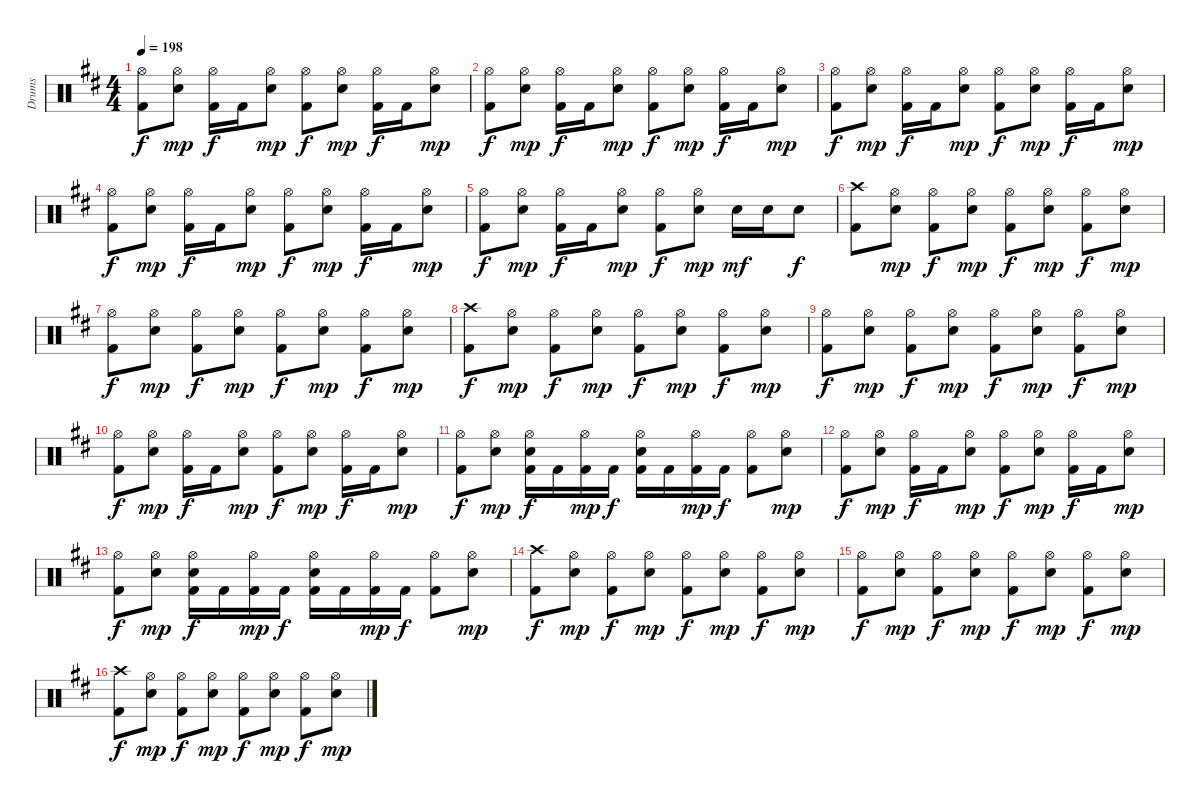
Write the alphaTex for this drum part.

\track ("Drums" "Drums") {instrument percussion}
\staff {score}
\articulation defaults
\ts (4 4)
\tempo 198
\clef neutral
\ks d
("Hi-Hat (open)" "Kick (hit) 2").8{dy f} ("Hi-Hat (open)" "Snare (hit) 2").8{dy mp} ("Hi-Hat (open)" "Kick (hit) 2").16{dy f} "Kick (hit) 2".16 ("Hi-Hat (open)" "Snare (hit) 2").8{dy mp} ("Hi-Hat (open)" "Kick (hit) 2").8{dy f} ("Hi-Hat (open)" "Snare (hit) 2").8{dy mp} ("Hi-Hat (open)" "Kick (hit) 2").16{dy f} "Kick (hit) 2".16 ("Hi-Hat (open)" "Snare (hit) 2").8{dy mp} |
("Hi-Hat (open)" "Kick (hit) 2").8{dy f} ("Hi-Hat (open)" "Snare (hit) 2").8{dy mp} ("Hi-Hat (open)" "Kick (hit) 2").16{dy f} "Kick (hit) 2".16 ("Hi-Hat (open)" "Snare (hit) 2").8{dy mp} ("Hi-Hat (open)" "Kick (hit) 2").8{dy f} ("Hi-Hat (open)" "Snare (hit) 2").8{dy mp} ("Hi-Hat (open)" "Kick (hit) 2").16{dy f} "Kick (hit) 2".16 ("Hi-Hat (open)" "Snare (hit) 2").8{dy mp} |
("Hi-Hat (open)" "Kick (hit) 2").8{dy f} ("Hi-Hat (open)" "Snare (hit) 2").8{dy mp} ("Hi-Hat (open)" "Kick (hit) 2").16{dy f} "Kick (hit) 2".16 ("Hi-Hat (open)" "Snare (hit) 2").8{dy mp} ("Hi-Hat (open)" "Kick (hit) 2").8{dy f} ("Hi-Hat (open)" "Snare (hit) 2").8{dy mp} ("Hi-Hat (open)" "Kick (hit) 2").16{dy f} "Kick (hit) 2".16 ("Hi-Hat (open)" "Snare (hit) 2").8{dy mp} |
("Hi-Hat (open)" "Kick (hit) 2").8{dy f} ("Hi-Hat (open)" "Snare (hit) 2").8{dy mp} ("Hi-Hat (open)" "Kick (hit) 2").16{dy f} "Kick (hit) 2".16 ("Hi-Hat (open)" "Snare (hit) 2").8{dy mp} ("Hi-Hat (open)" "Kick (hit) 2").8{dy f} ("Hi-Hat (open)" "Snare (hit) 2").8{dy mp} ("Hi-Hat (open)" "Kick (hit) 2").16{dy f} "Kick (hit) 2".16 ("Hi-Hat (open)" "Snare (hit) 2").8{dy mp} |
("Hi-Hat (open)" "Kick (hit) 2").8{dy f} ("Hi-Hat (open)" "Snare (hit) 2").8{dy mp} ("Hi-Hat (open)" "Kick (hit) 2").16{dy f} "Kick (hit) 2".16 ("Hi-Hat (open)" "Snare (hit) 2").8{dy mp} ("Hi-Hat (open)" "Kick (hit) 2").8{dy f} ("Hi-Hat (open)" "Snare (hit) 2").8{dy mp} "Snare (hit) 2".16{dy mf} "Snare (hit) 2".16 "Snare (hit) 2".8{dy f} |
("Crash high (hit)" "Kick (hit) 2").8 ("Hi-Hat (open)" "Snare (hit) 2").8{dy mp} ("Hi-Hat (open)" "Kick (hit) 2").8{dy f} ("Hi-Hat (open)" "Snare (hit) 2").8{dy mp} ("Hi-Hat (open)" "Kick (hit) 2").8{dy f} ("Hi-Hat (open)" "Snare (hit) 2").8{dy mp} ("Hi-Hat (open)" "Kick (hit) 2").8{dy f} ("Hi-Hat (open)" "Snare (hit) 2").8{dy mp} |
("Hi-Hat (open)" "Kick (hit) 2").8{dy f} ("Hi-Hat (open)" "Snare (hit) 2").8{dy mp} ("Hi-Hat (open)" "Kick (hit) 2").8{dy f} ("Hi-Hat (open)" "Snare (hit) 2").8{dy mp} ("Hi-Hat (open)" "Kick (hit) 2").8{dy f} ("Hi-Hat (open)" "Snare (hit) 2").8{dy mp} ("Hi-Hat (open)" "Kick (hit) 2").8{dy f} ("Hi-Hat (open)" "Snare (hit) 2").8{dy mp} |
("Crash high (hit)" "Kick (hit) 2").8{dy f} ("Hi-Hat (open)" "Snare (hit) 2").8{dy mp} ("Hi-Hat (open)" "Kick (hit) 2").8{dy f} ("Hi-Hat (open)" "Snare (hit) 2").8{dy mp} ("Hi-Hat (open)" "Kick (hit) 2").8{dy f} ("Hi-Hat (open)" "Snare (hit) 2").8{dy mp} ("Hi-Hat (open)" "Kick (hit) 2").8{dy f} ("Hi-Hat (open)" "Snare (hit) 2").8{dy mp} |
("Hi-Hat (open)" "Kick (hit) 2").8{dy f} ("Hi-Hat (open)" "Snare (hit) 2").8{dy mp} ("Hi-Hat (open)" "Kick (hit) 2").8{dy f} ("Hi-Hat (open)" "Snare (hit) 2").8{dy mp} ("Hi-Hat (open)" "Kick (hit) 2").8{dy f} ("Hi-Hat (open)" "Snare (hit) 2").8{dy mp} ("Hi-Hat (open)" "Kick (hit) 2").8{dy f} ("Hi-Hat (open)" "Snare (hit) 2").8{dy mp} |
("Hi-Hat (open)" "Kick (hit) 2").8{dy f} ("Hi-Hat (open)" "Snare (hit) 2").8{dy mp} ("Hi-Hat (open)" "Kick (hit) 2").16{dy f} "Kick (hit) 2".16 ("Hi-Hat (open)" "Snare (hit) 2").8{dy mp} ("Hi-Hat (open)" "Kick (hit) 2").8{dy f} ("Hi-Hat (open)" "Snare (hit) 2").8{dy mp} ("Hi-Hat (open)" "Kick (hit) 2").16{dy f} "Kick (hit) 2".16 ("Hi-Hat (open)" "Snare (hit) 2").8{dy mp} |
("Hi-Hat (open)" "Kick (hit) 2").8{dy f} ("Hi-Hat (open)" "Snare (hit) 2").8{dy mp} ("Hi-Hat (open)" "Snare (hit) 2" "Kick (hit) 2").16{dy f} "Kick (hit) 2".16 ("Hi-Hat (open)" "Kick (hit) 2").16{dy mp} "Kick (hit) 2".16{dy f} ("Hi-Hat (open)" "Snare (hit) 2" "Kick (hit) 2").16 "Kick (hit) 2".16 ("Hi-Hat (open)" "Kick (hit) 2").16{dy mp} "Kick (hit) 2".16{dy f} ("Hi-Hat (open)" "Kick (hit) 2").8 ("Hi-Hat (open)" "Snare (hit) 2").8{dy mp} |
("Hi-Hat (open)" "Kick (hit) 2").8{dy f} ("Hi-Hat (open)" "Snare (hit) 2").8{dy mp} ("Hi-Hat (open)" "Kick (hit) 2").16{dy f} "Kick (hit) 2".16 ("Hi-Hat (open)" "Snare (hit) 2").8{dy mp} ("Hi-Hat (open)" "Kick (hit) 2").8{dy f} ("Hi-Hat (open)" "Snare (hit) 2").8{dy mp} ("Hi-Hat (open)" "Kick (hit) 2").16{dy f} "Kick (hit) 2".16 ("Hi-Hat (open)" "Snare (hit) 2").8{dy mp} |
("Hi-Hat (open)" "Kick (hit) 2").8{dy f} ("Hi-Hat (open)" "Snare (hit) 2").8{dy mp} ("Hi-Hat (open)" "Snare (hit) 2" "Kick (hit) 2").16{dy f} "Kick (hit) 2".16 ("Hi-Hat (open)" "Kick (hit) 2").16{dy mp} "Kick (hit) 2".16{dy f} ("Hi-Hat (open)" "Snare (hit) 2" "Kick (hit) 2").16 "Kick (hit) 2".16 ("Hi-Hat (open)" "Kick (hit) 2").16{dy mp} "Kick (hit) 2".16{dy f} ("Hi-Hat (open)" "Kick (hit) 2").8 ("Hi-Hat (open)" "Snare (hit) 2").8{dy mp} |
("Crash high (hit)" "Kick (hit) 2").8{dy f} ("Hi-Hat (open)" "Snare (hit) 2").8{dy mp} ("Hi-Hat (open)" "Kick (hit) 2").8{dy f} ("Hi-Hat (open)" "Snare (hit) 2").8{dy mp} ("Hi-Hat (open)" "Kick (hit) 2").8{dy f} ("Hi-Hat (open)" "Snare (hit) 2").8{dy mp} ("Hi-Hat (open)" "Kick (hit) 2").8{dy f} ("Hi-Hat (open)" "Snare (hit) 2").8{dy mp} |
("Hi-Hat (open)" "Kick (hit) 2").8{dy f} ("Hi-Hat (open)" "Snare (hit) 2").8{dy mp} ("Hi-Hat (open)" "Kick (hit) 2").8{dy f} ("Hi-Hat (open)" "Snare (hit) 2").8{dy mp} ("Hi-Hat (open)" "Kick (hit) 2").8{dy f} ("Hi-Hat (open)" "Snare (hit) 2").8{dy mp} ("Hi-Hat (open)" "Kick (hit) 2").8{dy f} ("Hi-Hat (open)" "Snare (hit) 2").8{dy mp} |
("Crash high (hit)" "Kick (hit) 2").8{dy f} ("Hi-Hat (open)" "Snare (hit) 2").8{dy mp} ("Hi-Hat (open)" "Kick (hit) 2").8{dy f} ("Hi-Hat (open)" "Snare (hit) 2").8{dy mp} ("Hi-Hat (open)" "Kick (hit) 2").8{dy f} ("Hi-Hat (open)" "Snare (hit) 2").8{dy mp} ("Hi-Hat (open)" "Kick (hit) 2").8{dy f} ("Hi-Hat (open)" "Snare (hit) 2").8{dy mp}
